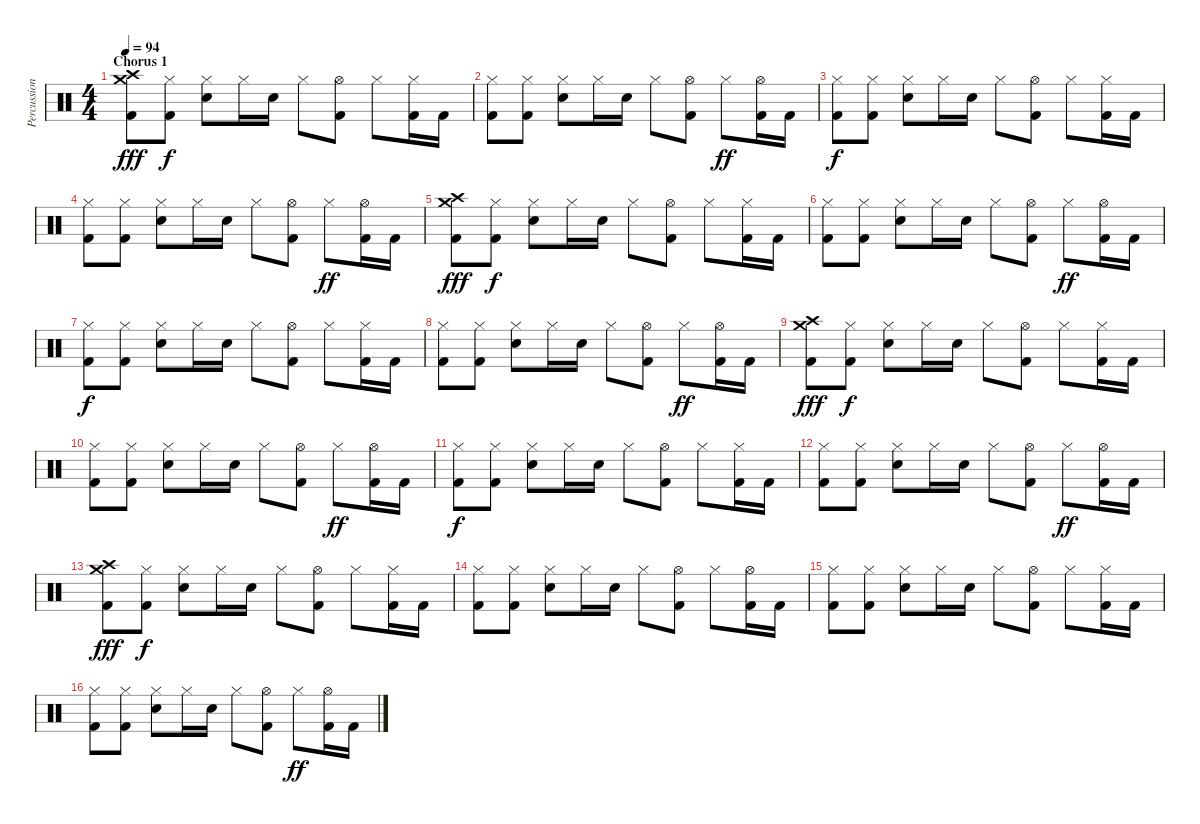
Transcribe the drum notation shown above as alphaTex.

\track ("Percussion" "Percussion") {instrument percussion}
\staff {score}
\articulation defaults
\ts (4 4)
\section ("" "Chorus 1")
\tempo 94
\clef neutral
\ks c
("Crash high (hit)" "Crash medium (hit)" "Kick (hit) 2").8{dy fff} ("Hi-Hat (closed)" "Kick (hit) 2").8{dy f} ("Hi-Hat (closed)" "Snare (hit) 2").8 "Hi-Hat (closed)".16 "Snare (hit) 2".16 "Hi-Hat (closed)".8 ("Hi-Hat (open)" "Kick (hit) 2").8 "Hi-Hat (closed)".8 ("Hi-Hat (closed)" "Kick (hit) 2").16 "Kick (hit) 2".16 |
("Hi-Hat (closed)" "Kick (hit) 2").8 ("Hi-Hat (closed)" "Kick (hit) 2").8 ("Hi-Hat (closed)" "Snare (hit) 2").8 "Hi-Hat (closed)".16 "Snare (hit) 2".16 "Hi-Hat (closed)".8 ("Hi-Hat (open)" "Kick (hit) 2").8 "Hi-Hat (closed)".8{dy ff} ("Hi-Hat (open)" "Kick (hit) 2").16 "Kick (hit) 2".16 |
("Hi-Hat (closed)" "Kick (hit) 2").8{dy f} ("Hi-Hat (closed)" "Kick (hit) 2").8 ("Hi-Hat (closed)" "Snare (hit) 2").8 "Hi-Hat (closed)".16 "Snare (hit) 2".16 "Hi-Hat (closed)".8 ("Hi-Hat (open)" "Kick (hit) 2").8 "Hi-Hat (closed)".8 ("Hi-Hat (closed)" "Kick (hit) 2").16 "Kick (hit) 2".16 |
("Hi-Hat (closed)" "Kick (hit) 2").8 ("Hi-Hat (closed)" "Kick (hit) 2").8 ("Hi-Hat (closed)" "Snare (hit) 2").8 "Hi-Hat (closed)".16 "Snare (hit) 2".16 "Hi-Hat (closed)".8 ("Hi-Hat (open)" "Kick (hit) 2").8 "Hi-Hat (closed)".8{dy ff} ("Hi-Hat (open)" "Kick (hit) 2").16 "Kick (hit) 2".16 |
("Crash high (hit)" "Crash medium (hit)" "Kick (hit) 2").8{dy fff} ("Hi-Hat (closed)" "Kick (hit) 2").8{dy f} ("Hi-Hat (closed)" "Snare (hit) 2").8 "Hi-Hat (closed)".16 "Snare (hit) 2".16 "Hi-Hat (closed)".8 ("Hi-Hat (open)" "Kick (hit) 2").8 "Hi-Hat (closed)".8 ("Hi-Hat (closed)" "Kick (hit) 2").16 "Kick (hit) 2".16 |
("Hi-Hat (closed)" "Kick (hit) 2").8 ("Hi-Hat (closed)" "Kick (hit) 2").8 ("Hi-Hat (closed)" "Snare (hit) 2").8 "Hi-Hat (closed)".16 "Snare (hit) 2".16 "Hi-Hat (closed)".8 ("Hi-Hat (open)" "Kick (hit) 2").8 "Hi-Hat (closed)".8{dy ff} ("Hi-Hat (open)" "Kick (hit) 2").16 "Kick (hit) 2".16 |
("Hi-Hat (closed)" "Kick (hit) 2").8{dy f} ("Hi-Hat (closed)" "Kick (hit) 2").8 ("Hi-Hat (closed)" "Snare (hit) 2").8 "Hi-Hat (closed)".16 "Snare (hit) 2".16 "Hi-Hat (closed)".8 ("Hi-Hat (open)" "Kick (hit) 2").8 "Hi-Hat (closed)".8 ("Hi-Hat (closed)" "Kick (hit) 2").16 "Kick (hit) 2".16 |
("Hi-Hat (closed)" "Kick (hit) 2").8 ("Hi-Hat (closed)" "Kick (hit) 2").8 ("Hi-Hat (closed)" "Snare (hit) 2").8 "Hi-Hat (closed)".16 "Snare (hit) 2".16 "Hi-Hat (closed)".8 ("Hi-Hat (open)" "Kick (hit) 2").8 "Hi-Hat (closed)".8{dy ff} ("Hi-Hat (open)" "Kick (hit) 2").16 "Kick (hit) 2".16 |
("Crash high (hit)" "Crash medium (hit)" "Kick (hit) 2").8{dy fff} ("Hi-Hat (closed)" "Kick (hit) 2").8{dy f} ("Hi-Hat (closed)" "Snare (hit) 2").8 "Hi-Hat (closed)".16 "Snare (hit) 2".16 "Hi-Hat (closed)".8 ("Hi-Hat (open)" "Kick (hit) 2").8 "Hi-Hat (closed)".8 ("Hi-Hat (closed)" "Kick (hit) 2").16 "Kick (hit) 2".16 |
("Hi-Hat (closed)" "Kick (hit) 2").8 ("Hi-Hat (closed)" "Kick (hit) 2").8 ("Hi-Hat (closed)" "Snare (hit) 2").8 "Hi-Hat (closed)".16 "Snare (hit) 2".16 "Hi-Hat (closed)".8 ("Hi-Hat (open)" "Kick (hit) 2").8 "Hi-Hat (closed)".8{dy ff} ("Hi-Hat (open)" "Kick (hit) 2").16 "Kick (hit) 2".16 |
("Hi-Hat (closed)" "Kick (hit) 2").8{dy f} ("Hi-Hat (closed)" "Kick (hit) 2").8 ("Hi-Hat (closed)" "Snare (hit) 2").8 "Hi-Hat (closed)".16 "Snare (hit) 2".16 "Hi-Hat (closed)".8 ("Hi-Hat (open)" "Kick (hit) 2").8 "Hi-Hat (closed)".8 ("Hi-Hat (closed)" "Kick (hit) 2").16 "Kick (hit) 2".16 |
("Hi-Hat (closed)" "Kick (hit) 2").8 ("Hi-Hat (closed)" "Kick (hit) 2").8 ("Hi-Hat (closed)" "Snare (hit) 2").8 "Hi-Hat (closed)".16 "Snare (hit) 2".16 "Hi-Hat (closed)".8 ("Hi-Hat (open)" "Kick (hit) 2").8 "Hi-Hat (closed)".8{dy ff} ("Hi-Hat (open)" "Kick (hit) 2").16 "Kick (hit) 2".16 |
("Crash high (hit)" "Crash medium (hit)" "Kick (hit) 2").8{dy fff} ("Hi-Hat (closed)" "Kick (hit) 2").8{dy f} ("Hi-Hat (closed)" "Snare (hit) 2").8 "Hi-Hat (closed)".16 "Snare (hit) 2".16 "Hi-Hat (closed)".8 ("Hi-Hat (open)" "Kick (hit) 2").8 "Hi-Hat (closed)".8 ("Hi-Hat (closed)" "Kick (hit) 2").16 "Kick (hit) 2".16 |
("Hi-Hat (closed)" "Kick (hit) 2").8 ("Hi-Hat (closed)" "Kick (hit) 2").8 ("Hi-Hat (closed)" "Snare (hit) 2").8 "Hi-Hat (closed)".16 "Snare (hit) 2".16 "Hi-Hat (closed)".8 ("Hi-Hat (open)" "Kick (hit) 2").8 "Hi-Hat (closed)".8 ("Hi-Hat (open)" "Kick (hit) 2").16 "Kick (hit) 2".16 |
("Hi-Hat (closed)" "Kick (hit) 2").8 ("Hi-Hat (closed)" "Kick (hit) 2").8 ("Hi-Hat (closed)" "Snare (hit) 2").8 "Hi-Hat (closed)".16 "Snare (hit) 2".16 "Hi-Hat (closed)".8 ("Hi-Hat (open)" "Kick (hit) 2").8 "Hi-Hat (closed)".8 ("Hi-Hat (closed)" "Kick (hit) 2").16 "Kick (hit) 2".16 |
("Hi-Hat (closed)" "Kick (hit) 2").8 ("Hi-Hat (closed)" "Kick (hit) 2").8 ("Hi-Hat (closed)" "Snare (hit) 2").8 "Hi-Hat (closed)".16 "Snare (hit) 2".16 "Hi-Hat (closed)".8 ("Hi-Hat (open)" "Kick (hit) 2").8 "Hi-Hat (closed)".8{dy ff} ("Hi-Hat (open)" "Kick (hit) 2").16 "Kick (hit) 2".16
